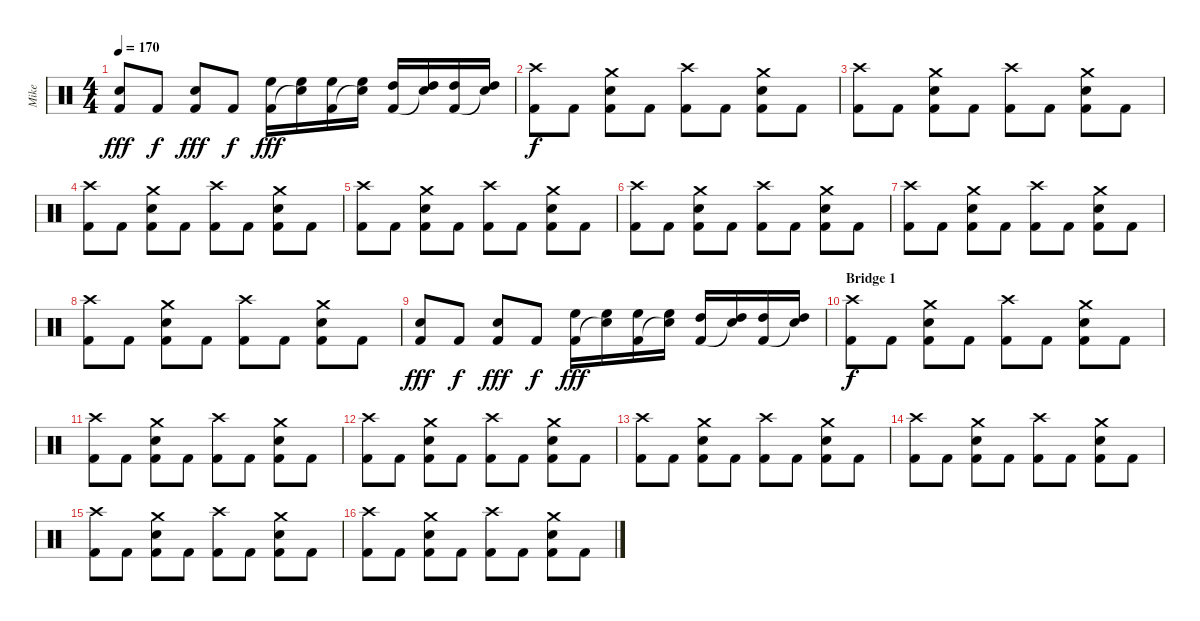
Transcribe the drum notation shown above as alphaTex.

\track ("Mike" "Mike") {instrument percussion}
\staff {score}
\articulation defaults
\ts (4 4)
\tempo 170
\clef neutral
\ks c
("Snare (hit) 2" "Kick (hit) 2").8{dy fff} "Kick (hit) 2".8{dy f} ("Snare (hit) 2" "Kick (hit) 2").8{dy fff} "Kick (hit) 2".8{dy f} ("High Floor Tom (hit)" "Kick (hit) 2").16{dy fff} ("High Floor Tom (hit)" "Snare (hit)"{t}).16 ("High Floor Tom (hit)" "Kick (hit) 2").16 ("High Floor Tom (hit)" "Snare (hit)"{t}).16 ("High Tom (hit)" "Kick (hit) 2").16 ("High Tom (hit)" "Snare (hit)"{t}).16 ("High Tom (hit)" "Kick (hit) 2").16 ("High Tom (hit)" "Snare (hit)"{t}).16 |
("Crash high (hit)" "Kick (hit) 2").8{dy f} "Kick (hit) 2".8 ("Crash medium (hit)" "Snare (hit) 2" "Kick (hit) 2").8 "Kick (hit) 2".8 ("Crash high (hit)" "Kick (hit) 2").8 "Kick (hit) 2".8 ("Crash medium (hit)" "Snare (hit) 2" "Kick (hit) 2").8 "Kick (hit) 2".8 |
("Crash high (hit)" "Kick (hit) 2").8 "Kick (hit) 2".8 ("Crash medium (hit)" "Snare (hit) 2" "Kick (hit) 2").8 "Kick (hit) 2".8 ("Crash high (hit)" "Kick (hit) 2").8 "Kick (hit) 2".8 ("Crash medium (hit)" "Snare (hit) 2" "Kick (hit) 2").8 "Kick (hit) 2".8 |
("Crash high (hit)" "Kick (hit) 2").8 "Kick (hit) 2".8 ("Crash medium (hit)" "Snare (hit) 2" "Kick (hit) 2").8 "Kick (hit) 2".8 ("Crash high (hit)" "Kick (hit) 2").8 "Kick (hit) 2".8 ("Crash medium (hit)" "Snare (hit) 2" "Kick (hit) 2").8 "Kick (hit) 2".8 |
("Crash high (hit)" "Kick (hit) 2").8 "Kick (hit) 2".8 ("Crash medium (hit)" "Snare (hit) 2" "Kick (hit) 2").8 "Kick (hit) 2".8 ("Crash high (hit)" "Kick (hit) 2").8 "Kick (hit) 2".8 ("Crash medium (hit)" "Snare (hit) 2" "Kick (hit) 2").8 "Kick (hit) 2".8 |
("Crash high (hit)" "Kick (hit) 2").8 "Kick (hit) 2".8 ("Crash medium (hit)" "Snare (hit) 2" "Kick (hit) 2").8 "Kick (hit) 2".8 ("Crash high (hit)" "Kick (hit) 2").8 "Kick (hit) 2".8 ("Crash medium (hit)" "Snare (hit) 2" "Kick (hit) 2").8 "Kick (hit) 2".8 |
("Crash high (hit)" "Kick (hit) 2").8 "Kick (hit) 2".8 ("Crash medium (hit)" "Snare (hit) 2" "Kick (hit) 2").8 "Kick (hit) 2".8 ("Crash high (hit)" "Kick (hit) 2").8 "Kick (hit) 2".8 ("Crash medium (hit)" "Snare (hit) 2" "Kick (hit) 2").8 "Kick (hit) 2".8 |
("Crash high (hit)" "Kick (hit) 2").8 "Kick (hit) 2".8 ("Crash medium (hit)" "Snare (hit) 2" "Kick (hit) 2").8 "Kick (hit) 2".8 ("Crash high (hit)" "Kick (hit) 2").8 "Kick (hit) 2".8 ("Crash medium (hit)" "Snare (hit) 2" "Kick (hit) 2").8 "Kick (hit) 2".8 |
("Snare (hit) 2" "Kick (hit) 2").8{dy fff} "Kick (hit) 2".8{dy f} ("Snare (hit) 2" "Kick (hit) 2").8{dy fff} "Kick (hit) 2".8{dy f} ("High Floor Tom (hit)" "Kick (hit) 2").16{dy fff} ("High Floor Tom (hit)" "Snare (hit)"{t}).16 ("High Floor Tom (hit)" "Kick (hit) 2").16 ("High Floor Tom (hit)" "Snare (hit)"{t}).16 ("High Tom (hit)" "Kick (hit) 2").16 ("High Tom (hit)" "Snare (hit)"{t}).16 ("High Tom (hit)" "Kick (hit) 2").16 ("High Tom (hit)" "Snare (hit)"{t}).16 |
\section ("" "Bridge 1")
("Crash high (hit)" "Kick (hit) 2").8{dy f} "Kick (hit) 2".8 ("Crash medium (hit)" "Snare (hit) 2" "Kick (hit) 2").8 "Kick (hit) 2".8 ("Crash high (hit)" "Kick (hit) 2").8 "Kick (hit) 2".8 ("Crash medium (hit)" "Snare (hit) 2" "Kick (hit) 2").8 "Kick (hit) 2".8 |
("Crash high (hit)" "Kick (hit) 2").8 "Kick (hit) 2".8 ("Crash medium (hit)" "Snare (hit) 2" "Kick (hit) 2").8 "Kick (hit) 2".8 ("Crash high (hit)" "Kick (hit) 2").8 "Kick (hit) 2".8 ("Crash medium (hit)" "Snare (hit) 2" "Kick (hit) 2").8 "Kick (hit) 2".8 |
("Crash high (hit)" "Kick (hit) 2").8 "Kick (hit) 2".8 ("Crash medium (hit)" "Snare (hit) 2" "Kick (hit) 2").8 "Kick (hit) 2".8 ("Crash high (hit)" "Kick (hit) 2").8 "Kick (hit) 2".8 ("Crash medium (hit)" "Snare (hit) 2" "Kick (hit) 2").8 "Kick (hit) 2".8 |
("Crash high (hit)" "Kick (hit) 2").8 "Kick (hit) 2".8 ("Crash medium (hit)" "Snare (hit) 2" "Kick (hit) 2").8 "Kick (hit) 2".8 ("Crash high (hit)" "Kick (hit) 2").8 "Kick (hit) 2".8 ("Crash medium (hit)" "Snare (hit) 2" "Kick (hit) 2").8 "Kick (hit) 2".8 |
("Crash high (hit)" "Kick (hit) 2").8 "Kick (hit) 2".8 ("Crash medium (hit)" "Snare (hit) 2" "Kick (hit) 2").8 "Kick (hit) 2".8 ("Crash high (hit)" "Kick (hit) 2").8 "Kick (hit) 2".8 ("Crash medium (hit)" "Snare (hit) 2" "Kick (hit) 2").8 "Kick (hit) 2".8 |
("Crash high (hit)" "Kick (hit) 2").8 "Kick (hit) 2".8 ("Crash medium (hit)" "Snare (hit) 2" "Kick (hit) 2").8 "Kick (hit) 2".8 ("Crash high (hit)" "Kick (hit) 2").8 "Kick (hit) 2".8 ("Crash medium (hit)" "Snare (hit) 2" "Kick (hit) 2").8 "Kick (hit) 2".8 |
("Crash high (hit)" "Kick (hit) 2").8 "Kick (hit) 2".8 ("Crash medium (hit)" "Snare (hit) 2" "Kick (hit) 2").8 "Kick (hit) 2".8 ("Crash high (hit)" "Kick (hit) 2").8 "Kick (hit) 2".8 ("Crash medium (hit)" "Snare (hit) 2" "Kick (hit) 2").8 "Kick (hit) 2".8
